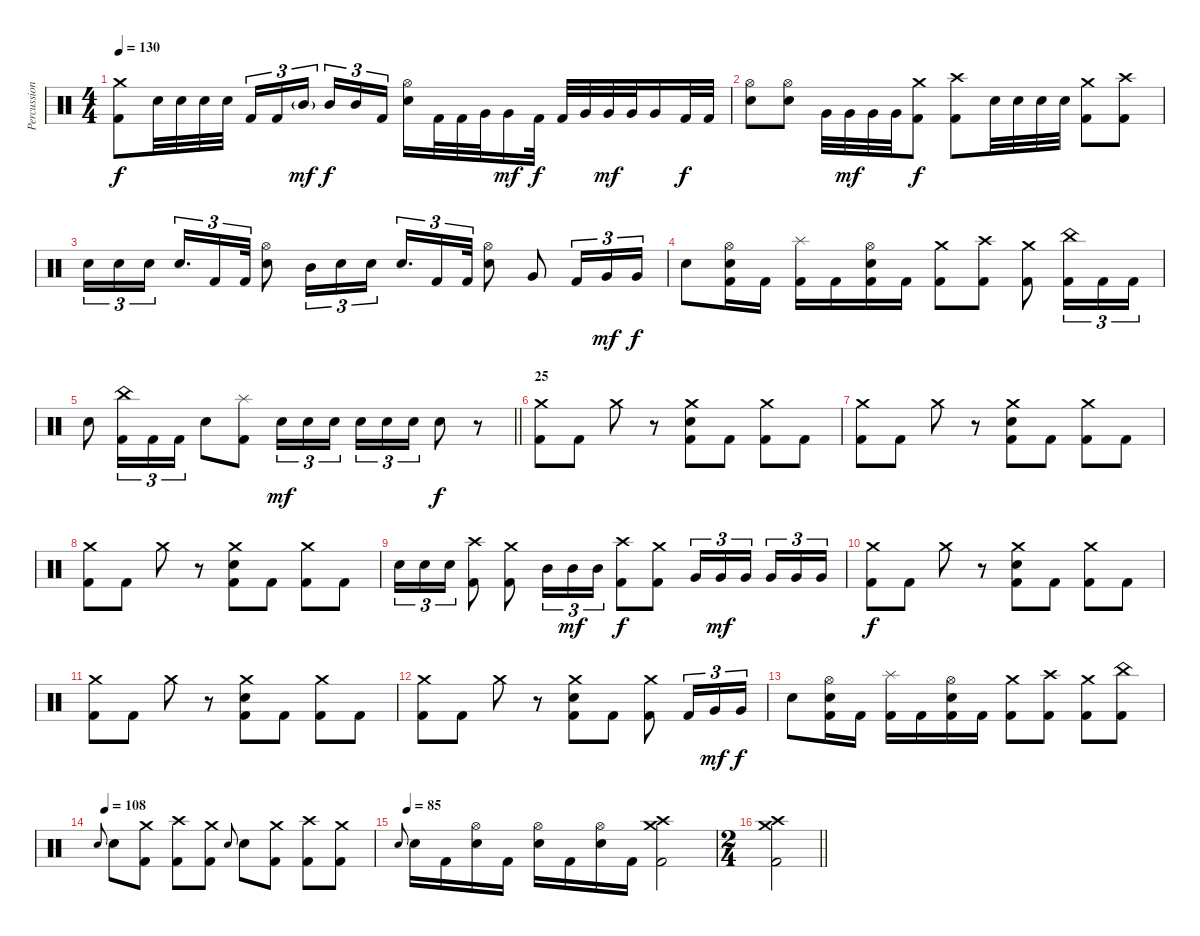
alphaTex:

\track ("Percussion" "Percussion") {instrument percussion}
\staff {score}
\articulation defaults
\ts (4 4)
\tempo 130
\clef neutral
\ks c
("Crash medium (hit)" "Kick (hit) 2").8{dy f} "Snare (hit) 2".32 "Snare (hit) 2".32 "Snare (hit) 2".32 "Snare (hit) 2".32 "Kick (hit) 2".16{tu (3 2)} "Kick (hit) 2".16{tu (3 2)} "Mid Tom (hit)"{g}.16{tu (3 2) dy mf beam splitsecondary} "Mid Tom (hit)".16{tu (3 2) dy f} "Mid Tom (hit)".16{tu (3 2)} "Kick (hit) 2".16{tu (3 2)} ("Hi-Hat (open)" "Snare (hit) 2").16 "Kick (hit) 2".32 "Kick (hit) 2".32 "Very Low Tom (hit)".32 "Very Low Tom (hit)".16{dy mf} "Kick (hit) 2".32{dy f} "Kick (hit) 2".32 "Very Low Tom (hit)".32 "Very Low Tom (hit)".32{dy mf} "Very Low Tom (hit)".32 "Very Low Tom (hit)".16 "Kick (hit) 2".32{dy f} "Kick (hit) 2".32 |
("Hi-Hat (open)" "Snare (hit) 2").8 ("Hi-Hat (open)" "Snare (hit) 2").8 "Very Low Tom (hit)".32 "Very Low Tom (hit)".32{dy mf} "Very Low Tom (hit)".32 "Very Low Tom (hit)".32 ("Crash medium (hit)" "Kick (hit) 2").8{dy f} ("Crash high (hit)" "Kick (hit) 2").8 "Snare (hit) 2".32 "Snare (hit) 2".32 "Snare (hit) 2".32 "Snare (hit) 2".32 ("Crash medium (hit)" "Kick (hit) 2").8 ("Crash high (hit)" "Kick (hit) 2").8 |
"Snare (hit) 2".16{tu (3 2)} "Snare (hit) 2".16{tu (3 2)} "Snare (hit) 2".16{tu (3 2) beam splitsecondary} "Snare (hit) 2".16{d tu (3 2)} "Kick (hit) 2".16{tu (3 2)} "Kick (hit) 2".32{tu (3 2)} ("Hi-Hat (open)" "Snare (hit) 2").8 "Mid Tom (hit)".16{tu (3 2)} "Snare (hit) 2".16{tu (3 2)} "Snare (hit) 2".16{tu (3 2)} "Snare (hit) 2".16{d tu (3 2)} "Kick (hit) 2".16{tu (3 2)} "Kick (hit) 2".32{tu (3 2)} ("Hi-Hat (open)" "Snare (hit) 2").8 "Very Low Tom (hit)".8 "Kick (hit) 2".16{tu (3 2)} "Very Low Tom (hit)".16{tu (3 2) dy mf} "Very Low Tom (hit)".16{tu (3 2) dy f} |
"Snare (hit) 2".8 ("Hi-Hat (open)" "Snare (hit) 2" "Kick (hit) 2").16 "Kick (hit) 2".16 ("Splash (hit)" "Kick (hit) 2").16 "Kick (hit) 2".16 ("Hi-Hat (open)" "Snare (hit) 2" "Kick (hit) 2").16 "Kick (hit) 2".16 ("Crash medium (hit)" "Kick (hit) 2").8 ("Crash high (hit)" "Kick (hit) 2").8 ("Crash medium (hit)" "Kick (hit) 2").8 ("China (hit)" "Kick (hit) 2").16{tu (3 2)} "Kick (hit) 2".16{tu (3 2)} "Kick (hit) 2".16{tu (3 2)} |
\barLineRight lightlight "Snare (hit) 2".8
("China (hit)" "Kick (hit) 2").16{tu (3 2)} "Kick (hit) 2".16{tu (3 2)} "Kick (hit) 2".16{tu (3 2)} "Snare (hit) 2".8 ("Splash (hit)" "Kick (hit) 2").8 "Snare (hit) 2".16{tu (3 2) dy mf} "Snare (hit) 2".16{tu (3 2)} "Snare (hit) 2".16{tu (3 2) beam splitsecondary} "Snare (hit) 2".16{tu (3 2)} "Snare (hit) 2".16{tu (3 2)} "Snare (hit) 2".16{tu (3 2)} "Snare (hit) 2".8{dy f} r.8 |
\section ("" "25")
("Crash medium (hit)" "Kick (hit) 2").8 "Kick (hit) 2".8 "Crash medium (hit)".8 r.8 ("Crash medium (hit)" "Snare (hit) 2" "Kick (hit) 2").8 "Kick (hit) 2".8 ("Crash medium (hit)" "Kick (hit) 2").8 "Kick (hit) 2".8 |
("Crash medium (hit)" "Kick (hit) 2").8 "Kick (hit) 2".8 "Crash medium (hit)".8 r.8 ("Crash medium (hit)" "Snare (hit) 2" "Kick (hit) 2").8 "Kick (hit) 2".8 ("Crash medium (hit)" "Kick (hit) 2").8 "Kick (hit) 2".8 |
("Crash medium (hit)" "Kick (hit) 2").8 "Kick (hit) 2".8 "Crash medium (hit)".8 r.8 ("Crash medium (hit)" "Snare (hit) 2" "Kick (hit) 2").8 "Kick (hit) 2".8 ("Crash medium (hit)" "Kick (hit) 2").8 "Kick (hit) 2".8 |
"Snare (hit) 2".16{tu (3 2)} "Snare (hit) 2".16{tu (3 2)} "Snare (hit) 2".16{tu (3 2)} ("Crash high (hit)" "Kick (hit) 2").8 ("Crash medium (hit)" "Kick (hit) 2").8 "Mid Tom (hit)".16{tu (3 2)} "Mid Tom (hit)".16{tu (3 2) dy mf} "Mid Tom (hit)".16{tu (3 2)} ("Crash high (hit)" "Kick (hit) 2").8{dy f} ("Crash medium (hit)" "Kick (hit) 2").8 "Very Low Tom (hit)".16{tu (3 2)} "Very Low Tom (hit)".16{tu (3 2) dy mf} "Very Low Tom (hit)".16{tu (3 2) beam splitsecondary} "Very Low Tom (hit)".16{tu (3 2)} "Very Low Tom (hit)".16{tu (3 2)} "Very Low Tom (hit)".16{tu (3 2)} |
("Crash medium (hit)" "Kick (hit) 2").8{dy f} "Kick (hit) 2".8 "Crash medium (hit)".8 r.8 ("Crash medium (hit)" "Snare (hit) 2" "Kick (hit) 2").8 "Kick (hit) 2".8 ("Crash medium (hit)" "Kick (hit) 2").8 "Kick (hit) 2".8 |
("Crash medium (hit)" "Kick (hit) 2").8 "Kick (hit) 2".8 "Crash medium (hit)".8 r.8 ("Crash medium (hit)" "Snare (hit) 2" "Kick (hit) 2").8 "Kick (hit) 2".8 ("Crash medium (hit)" "Kick (hit) 2").8 "Kick (hit) 2".8 |
("Crash medium (hit)" "Kick (hit) 2").8 "Kick (hit) 2".8 "Crash medium (hit)".8 r.8 ("Crash medium (hit)" "Snare (hit) 2" "Kick (hit) 2").8 "Kick (hit) 2".8 ("Crash medium (hit)" "Kick (hit) 2").8 "Kick (hit) 2".16{tu (3 2)} "Very Low Tom (hit)".16{tu (3 2) dy mf} "Very Low Tom (hit)".16{tu (3 2) dy f} |
"Snare (hit) 2".8 ("Hi-Hat (open)" "Snare (hit) 2" "Kick (hit) 2").16 "Kick (hit) 2".16 ("Splash (hit)" "Kick (hit) 2").16 "Kick (hit) 2".16 ("Hi-Hat (open)" "Snare (hit) 2" "Kick (hit) 2").16 "Kick (hit) 2".16 ("Crash medium (hit)" "Kick (hit) 2").8 ("Crash high (hit)" "Kick (hit) 2").8 ("Crash medium (hit)" "Kick (hit) 2").8 ("China (hit)" "Kick (hit) 2").8 |
\tempo (108 0.03125)
"Snare (hit) 2".8{gr onbeat} "Snare (hit) 2".8 ("Crash medium (hit)" "Kick (hit) 2").8 ("Crash high (hit)" "Kick (hit) 2").8 ("Crash medium (hit)" "Kick (hit) 2").8 "Snare (hit) 2".8{gr onbeat} "Snare (hit) 2".8 ("Crash medium (hit)" "Kick (hit) 2").8 ("Crash high (hit)" "Kick (hit) 2").8 ("Crash medium (hit)" "Kick (hit) 2").8 |
\tempo (85 0.03125)
"Snare (hit) 2".8{gr onbeat} "Snare (hit) 2".16 "Kick (hit) 2".16 ("Hi-Hat (open)" "Snare (hit) 2").16 "Kick (hit) 2".16 ("Hi-Hat (open)" "Snare (hit) 2").16 "Kick (hit) 2".16 ("Hi-Hat (open)" "Snare (hit) 2").16 "Kick (hit) 2".16 ("Crash medium (hit)" "Crash high (hit)" "Kick (hit) 2").2 |
\ts (2 4)
\barLineRight lightlight
("Crash medium (hit)" "Crash high (hit)" "Kick (hit) 2").2
